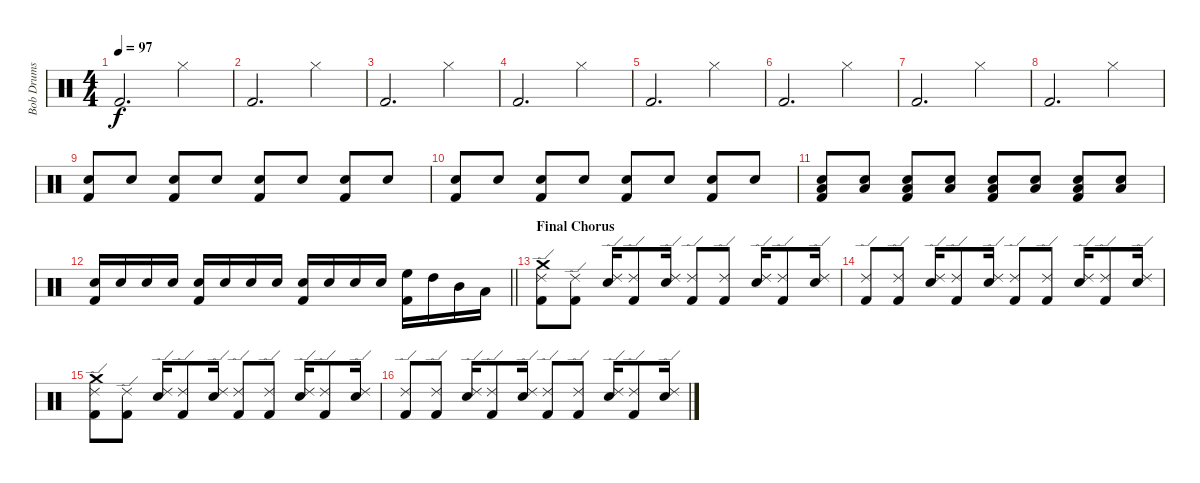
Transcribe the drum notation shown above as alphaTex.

\track ("Bob Drums" "Bob Drums") {instrument percussion}
\staff {score}
\articulation defaults
\ts (4 4)
\tempo 97
\clef neutral
\ks c "Kick (hit) 2".2{d dy f} "Hi-Hat (closed)".4
|
"Kick (hit) 2".2{d} "Hi-Hat (closed)".4 |
"Kick (hit) 2".2{d} "Hi-Hat (closed)".4 |
"Kick (hit) 2".2{d} "Hi-Hat (closed)".4 |
"Kick (hit) 2".2{d} "Hi-Hat (closed)".4 |
"Kick (hit) 2".2{d} "Hi-Hat (closed)".4 |
"Kick (hit) 2".2{d} "Hi-Hat (closed)".4 |
"Kick (hit) 2".2{d} "Hi-Hat (closed)".4{volume 10} |
("Snare (hit) 2" "Kick (hit) 2").8{volume 16} "Snare (hit) 2".8 ("Snare (hit) 2" "Kick (hit) 2").8 "Snare (hit) 2".8 ("Snare (hit) 2" "Kick (hit) 2").8 "Snare (hit) 2".8 ("Snare (hit) 2" "Kick (hit) 2").8 "Snare (hit) 2".8 |
("Snare (hit) 2" "Kick (hit) 2").8 "Snare (hit) 2".8 ("Snare (hit) 2" "Kick (hit) 2").8 "Snare (hit) 2".8 ("Snare (hit) 2" "Kick (hit) 2").8 "Snare (hit) 2".8 ("Snare (hit) 2" "Kick (hit) 2").8 "Snare (hit) 2".8 |
("Low Floor Tom (hit)" "Snare (hit) 2" "Kick (hit) 2").8 ("Low Floor Tom (hit)" "Snare (hit) 2").8 ("Low Floor Tom (hit)" "Snare (hit) 2" "Kick (hit) 2").8 ("Low Floor Tom (hit)" "Snare (hit) 2").8 ("Low Floor Tom (hit)" "Snare (hit) 2" "Kick (hit) 2").8 ("Low Floor Tom (hit)" "Snare (hit) 2").8 ("Low Floor Tom (hit)" "Snare (hit) 2" "Kick (hit) 2").8 ("Low Floor Tom (hit)" "Snare (hit) 2").8 |
\barLineRight lightlight
("Snare (hit) 2" "Kick (hit) 2").16 "Snare (hit) 2".16 "Snare (hit) 2".16 "Snare (hit) 2".16 ("Snare (hit) 2" "Kick (hit) 2").16 "Snare (hit) 2".16 "Snare (hit) 2".16 "Snare (hit) 2".16 ("Snare (hit) 2" "Kick (hit) 2").16 "Snare (hit) 2".16 "Snare (hit) 2".16 "Snare (hit) 2".16 ("High Floor Tom (hit)" "Kick (hit) 2").16 "High Tom (hit)".16 "Mid Tom (hit)".16 "Low Tom (hit)".16 |
\section ("" "Final Chorus")
("Ride (edge) 2" "Crash medium (hit)" "Kick (hit) 2").8 ("Ride (edge) 2" "Kick (hit) 2").8 ("Ride (edge) 2" "Snare (hit) 2").16 ("Ride (edge) 2" "Kick (hit) 2").8 ("Ride (edge) 2" "Snare (hit) 2").16 ("Ride (edge) 2" "Kick (hit) 2").8 ("Ride (edge) 2" "Kick (hit) 2").8 ("Ride (edge) 2" "Snare (hit) 2").16 ("Ride (edge) 2" "Kick (hit) 2").8 ("Ride (edge) 2" "Snare (hit) 2").16 |
("Ride (edge) 2" "Kick (hit) 2").8 ("Ride (edge) 2" "Kick (hit) 2").8 ("Ride (edge) 2" "Snare (hit) 2").16 ("Ride (edge) 2" "Kick (hit) 2").8 ("Ride (edge) 2" "Snare (hit) 2").16 ("Ride (edge) 2" "Kick (hit) 2").8 ("Ride (edge) 2" "Kick (hit) 2").8 ("Ride (edge) 2" "Snare (hit) 2").16 ("Ride (edge) 2" "Kick (hit) 2").8 ("Ride (edge) 2" "Snare (hit) 2").16 |
("Ride (edge) 2" "Crash medium (hit)" "Kick (hit) 2").8 ("Ride (edge) 2" "Kick (hit) 2").8 ("Ride (edge) 2" "Snare (hit) 2").16 ("Ride (edge) 2" "Kick (hit) 2").8 ("Ride (edge) 2" "Snare (hit) 2").16 ("Ride (edge) 2" "Kick (hit) 2").8 ("Ride (edge) 2" "Kick (hit) 2").8 ("Ride (edge) 2" "Snare (hit) 2").16 ("Ride (edge) 2" "Kick (hit) 2").8 ("Ride (edge) 2" "Snare (hit) 2").16 |
("Ride (edge) 2" "Kick (hit) 2").8 ("Ride (edge) 2" "Kick (hit) 2").8 ("Ride (edge) 2" "Snare (hit) 2").16 ("Ride (edge) 2" "Kick (hit) 2").8 ("Ride (edge) 2" "Snare (hit) 2").16 ("Ride (edge) 2" "Kick (hit) 2").8 ("Ride (edge) 2" "Kick (hit) 2").8 ("Ride (edge) 2" "Snare (hit) 2").16 ("Ride (edge) 2" "Kick (hit) 2").8 ("Ride (edge) 2" "Snare (hit) 2").16
